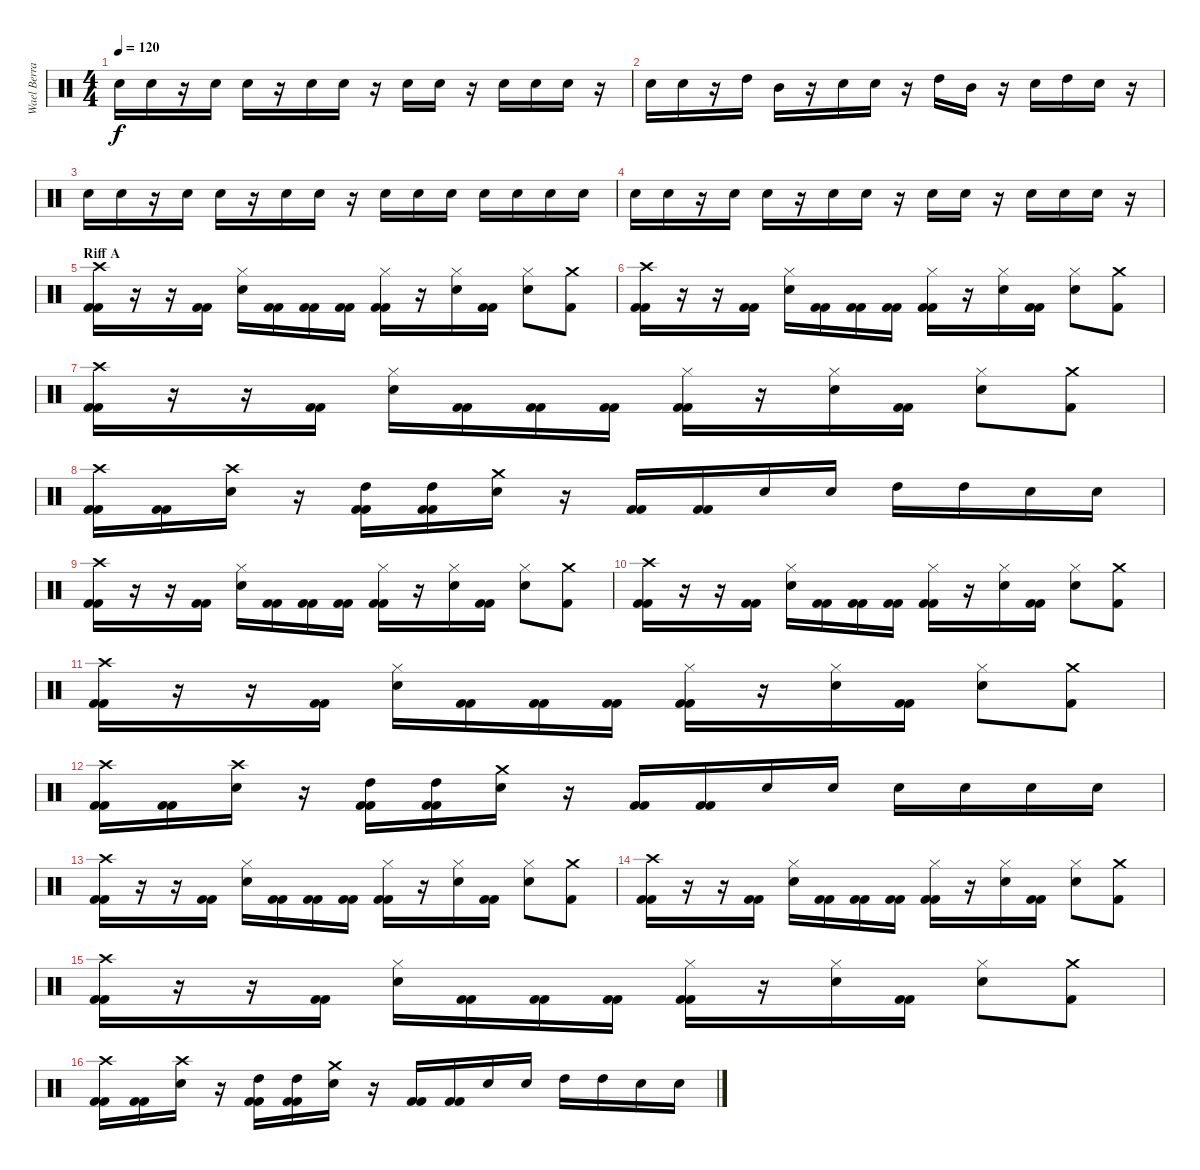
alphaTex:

\track ("Wael Berrais" "Wael Berra") {instrument percussion}
\staff {score}
\articulation defaults
\ts (4 4)
\tempo 120
\clef neutral
\ks c "Electric Snare (hit)".16{dy f} "Electric Snare (hit)".16
r.16 "Electric Snare (hit)".16 "Electric Snare (hit)".16 r.16 "Electric Snare (hit)".16 "Electric Snare (hit)".16 r.16 "Electric Snare (hit)".16 "Electric Snare (hit)".16 r.16 "Electric Snare (hit)".16 "Electric Snare (hit)".16 "Electric Snare (hit)".16 r.16 |
"Electric Snare (hit)".16 "Electric Snare (hit)".16 r.16 "High Tom (hit)".16 "Mid Tom (hit)".16 r.16 "Electric Snare (hit)".16 "Electric Snare (hit)".16 r.16 "High Tom (hit)".16 "Mid Tom (hit)".16 r.16 "Electric Snare (hit)".16 "High Tom (hit)".16 "Electric Snare (hit)".16 r.16 |
"Electric Snare (hit)".16 "Electric Snare (hit)".16 r.16 "Electric Snare (hit)".16 "Electric Snare (hit)".16 r.16 "Electric Snare (hit)".16 "Electric Snare (hit)".16 r.16 "Electric Snare (hit)".16 "Electric Snare (hit)".16 "Electric Snare (hit)".16 "Electric Snare (hit)".16 "Electric Snare (hit)".16 "Electric Snare (hit)".16 "Electric Snare (hit)".16 |
"Electric Snare (hit)".16 "Electric Snare (hit)".16 r.16 "Electric Snare (hit)".16 "Electric Snare (hit)".16 r.16 "Electric Snare (hit)".16 "Electric Snare (hit)".16 r.16 "Electric Snare (hit)".16 "Electric Snare (hit)".16 r.16 "Electric Snare (hit)".16 "Electric Snare (hit)".16 "Electric Snare (hit)".16 r.16 |
\section ("" "Riff A")
("Crash high (hit)" "Kick (hit) 2" "Kick (hit) 2").16 r.16 r.16 ("Kick (hit) 2" "Kick (hit) 2").16 ("Hi-Hat (closed)" "Electric Snare (hit)").16 ("Kick (hit) 2" "Kick (hit) 2").16 ("Kick (hit) 2" "Kick (hit) 2").16 ("Kick (hit) 2" "Kick (hit) 2").16 ("Hi-Hat (closed)" "Kick (hit) 2" "Kick (hit) 2").16 r.16 ("Hi-Hat (closed)" "Electric Snare (hit)").16 ("Kick (hit) 2" "Kick (hit) 2").16 ("Hi-Hat (closed)" "Electric Snare (hit)").8 ("Crash medium (hit)" "Kick (hit) 2").8 |
("Crash high (hit)" "Kick (hit) 2" "Kick (hit) 2").16 r.16 r.16 ("Kick (hit) 2" "Kick (hit) 2").16 ("Hi-Hat (closed)" "Electric Snare (hit)").16 ("Kick (hit) 2" "Kick (hit) 2").16 ("Kick (hit) 2" "Kick (hit) 2").16 ("Kick (hit) 2" "Kick (hit) 2").16 ("Hi-Hat (closed)" "Kick (hit) 2" "Kick (hit) 2").16 r.16 ("Hi-Hat (closed)" "Electric Snare (hit)").16 ("Kick (hit) 2" "Kick (hit) 2").16 ("Hi-Hat (closed)" "Electric Snare (hit)").8 ("Crash medium (hit)" "Kick (hit) 2").8 |
("Crash high (hit)" "Kick (hit) 2" "Kick (hit) 2").16 r.16 r.16 ("Kick (hit) 2" "Kick (hit) 2").16 ("Hi-Hat (closed)" "Electric Snare (hit)").16 ("Kick (hit) 2" "Kick (hit) 2").16 ("Kick (hit) 2" "Kick (hit) 2").16 ("Kick (hit) 2" "Kick (hit) 2").16 ("Hi-Hat (closed)" "Kick (hit) 2" "Kick (hit) 2").16 r.16 ("Hi-Hat (closed)" "Electric Snare (hit)").16 ("Kick (hit) 2" "Kick (hit) 2").16 ("Hi-Hat (closed)" "Electric Snare (hit)").8 ("Crash medium (hit)" "Kick (hit) 2").8 |
("Crash high (hit)" "Kick (hit) 2" "Kick (hit) 2").16 ("Kick (hit) 2" "Kick (hit) 2").16 ("Electric Snare (hit)" "Crash high (hit)").16 r.16 ("High Tom (hit)" "Kick (hit) 2" "Kick (hit) 2").16 ("High Tom (hit)" "Kick (hit) 2" "Kick (hit) 2").16 ("Electric Snare (hit)" "Crash medium (hit)").16 r.16 ("Kick (hit) 2" "Kick (hit) 2").16 ("Kick (hit) 2" "Kick (hit) 2").16 "Electric Snare (hit)".16 "Electric Snare (hit)".16 "High Tom (hit)".16 "High Tom (hit)".16 "Electric Snare (hit)".16 "Electric Snare (hit)".16 |
("Crash high (hit)" "Kick (hit) 2" "Kick (hit) 2").16 r.16 r.16 ("Kick (hit) 2" "Kick (hit) 2").16 ("Hi-Hat (closed)" "Electric Snare (hit)").16 ("Kick (hit) 2" "Kick (hit) 2").16 ("Kick (hit) 2" "Kick (hit) 2").16 ("Kick (hit) 2" "Kick (hit) 2").16 ("Hi-Hat (closed)" "Kick (hit) 2" "Kick (hit) 2").16 r.16 ("Hi-Hat (closed)" "Electric Snare (hit)").16 ("Kick (hit) 2" "Kick (hit) 2").16 ("Hi-Hat (closed)" "Electric Snare (hit)").8 ("Crash medium (hit)" "Kick (hit) 2").8 |
("Crash high (hit)" "Kick (hit) 2" "Kick (hit) 2").16 r.16 r.16 ("Kick (hit) 2" "Kick (hit) 2").16 ("Hi-Hat (closed)" "Electric Snare (hit)").16 ("Kick (hit) 2" "Kick (hit) 2").16 ("Kick (hit) 2" "Kick (hit) 2").16 ("Kick (hit) 2" "Kick (hit) 2").16 ("Hi-Hat (closed)" "Kick (hit) 2" "Kick (hit) 2").16 r.16 ("Hi-Hat (closed)" "Electric Snare (hit)").16 ("Kick (hit) 2" "Kick (hit) 2").16 ("Hi-Hat (closed)" "Electric Snare (hit)").8 ("Crash medium (hit)" "Kick (hit) 2").8 |
("Crash high (hit)" "Kick (hit) 2" "Kick (hit) 2").16 r.16 r.16 ("Kick (hit) 2" "Kick (hit) 2").16 ("Hi-Hat (closed)" "Electric Snare (hit)").16 ("Kick (hit) 2" "Kick (hit) 2").16 ("Kick (hit) 2" "Kick (hit) 2").16 ("Kick (hit) 2" "Kick (hit) 2").16 ("Hi-Hat (closed)" "Kick (hit) 2" "Kick (hit) 2").16 r.16 ("Hi-Hat (closed)" "Electric Snare (hit)").16 ("Kick (hit) 2" "Kick (hit) 2").16 ("Hi-Hat (closed)" "Electric Snare (hit)").8 ("Crash medium (hit)" "Kick (hit) 2").8 |
("Crash high (hit)" "Kick (hit) 2" "Kick (hit) 2").16 ("Kick (hit) 2" "Kick (hit) 2").16 ("Electric Snare (hit)" "Crash high (hit)").16 r.16 ("High Tom (hit)" "Kick (hit) 2" "Kick (hit) 2").16 ("High Tom (hit)" "Kick (hit) 2" "Kick (hit) 2").16 ("Electric Snare (hit)" "Crash medium (hit)").16 r.16 ("Kick (hit) 2" "Kick (hit) 2").16 ("Kick (hit) 2" "Kick (hit) 2").16 "Electric Snare (hit)".16 "Electric Snare (hit)".16 "Electric Snare (hit)".16 "Electric Snare (hit)".16 "Electric Snare (hit)".16 "Electric Snare (hit)".16 |
("Crash high (hit)" "Kick (hit) 2" "Kick (hit) 2").16 r.16 r.16 ("Kick (hit) 2" "Kick (hit) 2").16 ("Hi-Hat (closed)" "Electric Snare (hit)").16 ("Kick (hit) 2" "Kick (hit) 2").16 ("Kick (hit) 2" "Kick (hit) 2").16 ("Kick (hit) 2" "Kick (hit) 2").16 ("Hi-Hat (closed)" "Kick (hit) 2" "Kick (hit) 2").16 r.16 ("Hi-Hat (closed)" "Electric Snare (hit)").16 ("Kick (hit) 2" "Kick (hit) 2").16 ("Hi-Hat (closed)" "Electric Snare (hit)").8 ("Crash medium (hit)" "Kick (hit) 2").8 |
("Crash high (hit)" "Kick (hit) 2" "Kick (hit) 2").16 r.16 r.16 ("Kick (hit) 2" "Kick (hit) 2").16 ("Hi-Hat (closed)" "Electric Snare (hit)").16 ("Kick (hit) 2" "Kick (hit) 2").16 ("Kick (hit) 2" "Kick (hit) 2").16 ("Kick (hit) 2" "Kick (hit) 2").16 ("Hi-Hat (closed)" "Kick (hit) 2" "Kick (hit) 2").16 r.16 ("Hi-Hat (closed)" "Electric Snare (hit)").16 ("Kick (hit) 2" "Kick (hit) 2").16 ("Hi-Hat (closed)" "Electric Snare (hit)").8 ("Crash medium (hit)" "Kick (hit) 2").8 |
("Crash high (hit)" "Kick (hit) 2" "Kick (hit) 2").16 r.16 r.16 ("Kick (hit) 2" "Kick (hit) 2").16 ("Hi-Hat (closed)" "Electric Snare (hit)").16 ("Kick (hit) 2" "Kick (hit) 2").16 ("Kick (hit) 2" "Kick (hit) 2").16 ("Kick (hit) 2" "Kick (hit) 2").16 ("Hi-Hat (closed)" "Kick (hit) 2" "Kick (hit) 2").16 r.16 ("Hi-Hat (closed)" "Electric Snare (hit)").16 ("Kick (hit) 2" "Kick (hit) 2").16 ("Hi-Hat (closed)" "Electric Snare (hit)").8 ("Crash medium (hit)" "Kick (hit) 2").8 |
("Crash high (hit)" "Kick (hit) 2" "Kick (hit) 2").16 ("Kick (hit) 2" "Kick (hit) 2").16 ("Electric Snare (hit)" "Crash high (hit)").16 r.16 ("High Tom (hit)" "Kick (hit) 2" "Kick (hit) 2").16 ("High Tom (hit)" "Kick (hit) 2" "Kick (hit) 2").16 ("Electric Snare (hit)" "Crash medium (hit)").16 r.16 ("Kick (hit) 2" "Kick (hit) 2").16 ("Kick (hit) 2" "Kick (hit) 2").16 "Electric Snare (hit)".16 "Electric Snare (hit)".16 "High Tom (hit)".16 "High Tom (hit)".16 "Electric Snare (hit)".16 "Electric Snare (hit)".16
